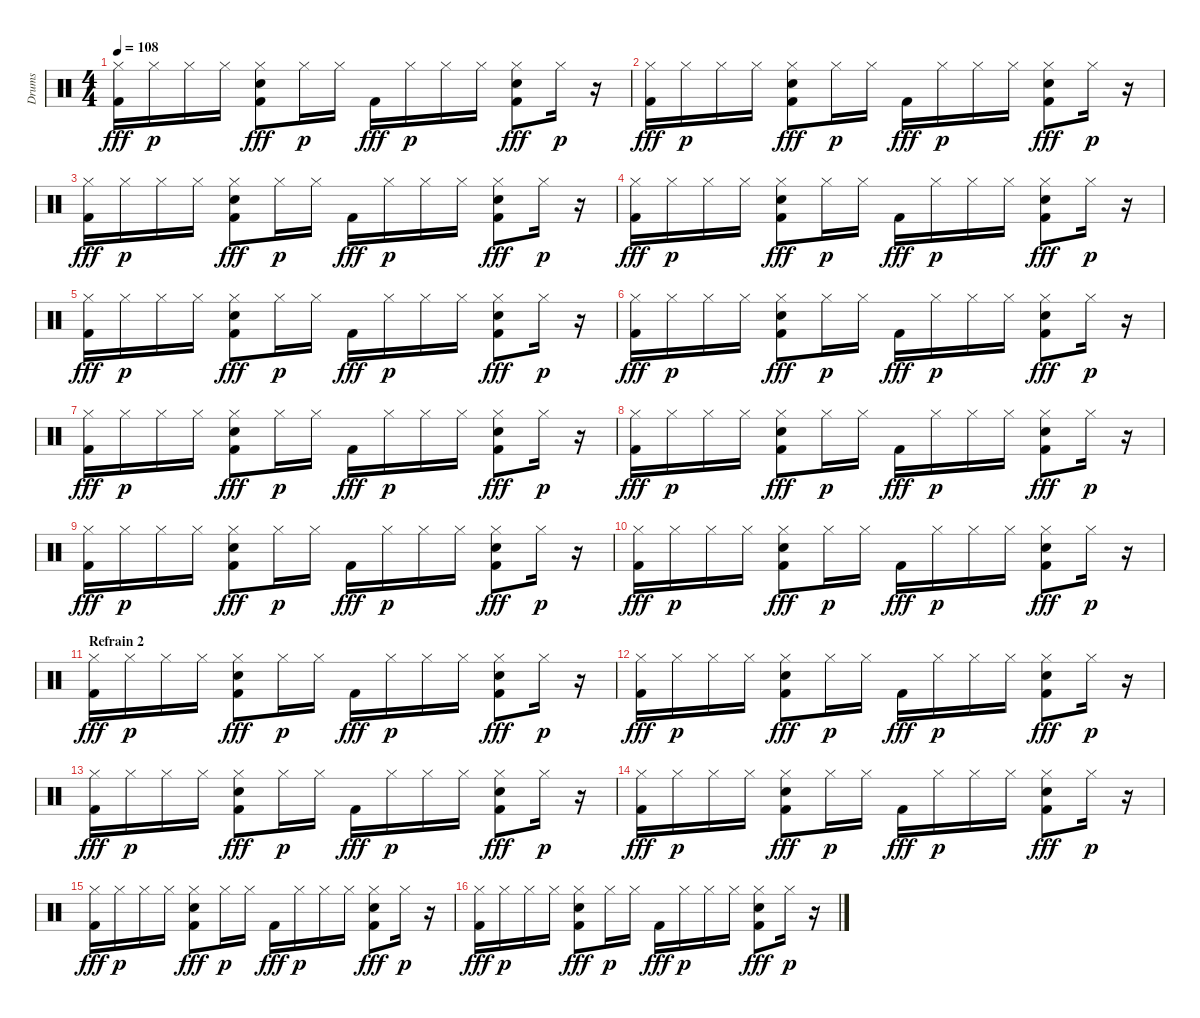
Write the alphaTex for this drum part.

\track ("Drums" "Drums") {instrument percussion}
\staff {score}
\articulation defaults
\ts (4 4)
\tempo 108
\clef neutral
\ks c
("Hi-Hat (closed)" "Kick (hit) 2").16{dy fff} "Hi-Hat (closed)".16{dy p} "Hi-Hat (closed)".16 "Hi-Hat (closed)".16 ("Hi-Hat (closed)" "Hand Clap (hit)" "Kick (hit) 2").8{dy fff} "Hi-Hat (closed)".16{dy p} "Hi-Hat (closed)".16 "Kick (hit) 2".16{dy fff} "Hi-Hat (closed)".16{dy p} "Hi-Hat (closed)".16 "Hi-Hat (closed)".16 ("Hi-Hat (closed)" "Hand Clap (hit)" "Kick (hit) 2").8{dy fff} "Hi-Hat (closed)".16{dy p} r.16 |
("Hi-Hat (closed)" "Kick (hit) 2").16{dy fff} "Hi-Hat (closed)".16{dy p} "Hi-Hat (closed)".16 "Hi-Hat (closed)".16 ("Hi-Hat (closed)" "Hand Clap (hit)" "Kick (hit) 2").8{dy fff} "Hi-Hat (closed)".16{dy p} "Hi-Hat (closed)".16 "Kick (hit) 2".16{dy fff} "Hi-Hat (closed)".16{dy p} "Hi-Hat (closed)".16 "Hi-Hat (closed)".16 ("Hi-Hat (closed)" "Hand Clap (hit)" "Kick (hit) 2").8{dy fff} "Hi-Hat (closed)".16{dy p} r.16 |
("Hi-Hat (closed)" "Kick (hit) 2").16{dy fff} "Hi-Hat (closed)".16{dy p} "Hi-Hat (closed)".16 "Hi-Hat (closed)".16 ("Hi-Hat (closed)" "Hand Clap (hit)" "Kick (hit) 2").8{dy fff} "Hi-Hat (closed)".16{dy p} "Hi-Hat (closed)".16 "Kick (hit) 2".16{dy fff} "Hi-Hat (closed)".16{dy p} "Hi-Hat (closed)".16 "Hi-Hat (closed)".16 ("Hi-Hat (closed)" "Hand Clap (hit)" "Kick (hit) 2").8{dy fff} "Hi-Hat (closed)".16{dy p} r.16 |
("Hi-Hat (closed)" "Kick (hit) 2").16{dy fff} "Hi-Hat (closed)".16{dy p} "Hi-Hat (closed)".16 "Hi-Hat (closed)".16 ("Hi-Hat (closed)" "Hand Clap (hit)" "Kick (hit) 2").8{dy fff} "Hi-Hat (closed)".16{dy p} "Hi-Hat (closed)".16 "Kick (hit) 2".16{dy fff} "Hi-Hat (closed)".16{dy p} "Hi-Hat (closed)".16 "Hi-Hat (closed)".16 ("Hi-Hat (closed)" "Hand Clap (hit)" "Kick (hit) 2").8{dy fff} "Hi-Hat (closed)".16{dy p} r.16 |
("Hi-Hat (closed)" "Kick (hit) 2").16{dy fff} "Hi-Hat (closed)".16{dy p} "Hi-Hat (closed)".16 "Hi-Hat (closed)".16 ("Hi-Hat (closed)" "Hand Clap (hit)" "Kick (hit) 2").8{dy fff} "Hi-Hat (closed)".16{dy p} "Hi-Hat (closed)".16 "Kick (hit) 2".16{dy fff} "Hi-Hat (closed)".16{dy p} "Hi-Hat (closed)".16 "Hi-Hat (closed)".16 ("Hi-Hat (closed)" "Hand Clap (hit)" "Kick (hit) 2").8{dy fff} "Hi-Hat (closed)".16{dy p} r.16 |
("Hi-Hat (closed)" "Kick (hit) 2").16{dy fff} "Hi-Hat (closed)".16{dy p} "Hi-Hat (closed)".16 "Hi-Hat (closed)".16 ("Hi-Hat (closed)" "Hand Clap (hit)" "Kick (hit) 2").8{dy fff} "Hi-Hat (closed)".16{dy p} "Hi-Hat (closed)".16 "Kick (hit) 2".16{dy fff} "Hi-Hat (closed)".16{dy p} "Hi-Hat (closed)".16 "Hi-Hat (closed)".16 ("Hi-Hat (closed)" "Hand Clap (hit)" "Kick (hit) 2").8{dy fff} "Hi-Hat (closed)".16{dy p} r.16 |
("Hi-Hat (closed)" "Kick (hit) 2").16{dy fff} "Hi-Hat (closed)".16{dy p} "Hi-Hat (closed)".16 "Hi-Hat (closed)".16 ("Hi-Hat (closed)" "Hand Clap (hit)" "Kick (hit) 2").8{dy fff} "Hi-Hat (closed)".16{dy p} "Hi-Hat (closed)".16 "Kick (hit) 2".16{dy fff} "Hi-Hat (closed)".16{dy p} "Hi-Hat (closed)".16 "Hi-Hat (closed)".16 ("Hi-Hat (closed)" "Hand Clap (hit)" "Kick (hit) 2").8{dy fff} "Hi-Hat (closed)".16{dy p} r.16 |
("Hi-Hat (closed)" "Kick (hit) 2").16{dy fff} "Hi-Hat (closed)".16{dy p} "Hi-Hat (closed)".16 "Hi-Hat (closed)".16 ("Hi-Hat (closed)" "Hand Clap (hit)" "Kick (hit) 2").8{dy fff} "Hi-Hat (closed)".16{dy p} "Hi-Hat (closed)".16 "Kick (hit) 2".16{dy fff} "Hi-Hat (closed)".16{dy p} "Hi-Hat (closed)".16 "Hi-Hat (closed)".16 ("Hi-Hat (closed)" "Hand Clap (hit)" "Kick (hit) 2").8{dy fff} "Hi-Hat (closed)".16{dy p} r.16 |
("Hi-Hat (closed)" "Kick (hit) 2").16{dy fff} "Hi-Hat (closed)".16{dy p} "Hi-Hat (closed)".16 "Hi-Hat (closed)".16 ("Hi-Hat (closed)" "Hand Clap (hit)" "Kick (hit) 2").8{dy fff} "Hi-Hat (closed)".16{dy p} "Hi-Hat (closed)".16 "Kick (hit) 2".16{dy fff} "Hi-Hat (closed)".16{dy p} "Hi-Hat (closed)".16 "Hi-Hat (closed)".16 ("Hi-Hat (closed)" "Hand Clap (hit)" "Kick (hit) 2").8{dy fff} "Hi-Hat (closed)".16{dy p} r.16 |
("Hi-Hat (closed)" "Kick (hit) 2").16{dy fff} "Hi-Hat (closed)".16{dy p} "Hi-Hat (closed)".16 "Hi-Hat (closed)".16 ("Hi-Hat (closed)" "Hand Clap (hit)" "Kick (hit) 2").8{dy fff} "Hi-Hat (closed)".16{dy p} "Hi-Hat (closed)".16 "Kick (hit) 2".16{dy fff} "Hi-Hat (closed)".16{dy p} "Hi-Hat (closed)".16 "Hi-Hat (closed)".16 ("Hi-Hat (closed)" "Hand Clap (hit)" "Kick (hit) 2").8{dy fff} "Hi-Hat (closed)".16{dy p} r.16 |
\section ("" "Refrain 2")
("Hi-Hat (closed)" "Kick (hit) 2").16{dy fff} "Hi-Hat (closed)".16{dy p} "Hi-Hat (closed)".16 "Hi-Hat (closed)".16 ("Hi-Hat (closed)" "Hand Clap (hit)" "Kick (hit) 2").8{dy fff} "Hi-Hat (closed)".16{dy p} "Hi-Hat (closed)".16 "Kick (hit) 2".16{dy fff} "Hi-Hat (closed)".16{dy p} "Hi-Hat (closed)".16 "Hi-Hat (closed)".16 ("Hi-Hat (closed)" "Hand Clap (hit)" "Kick (hit) 2").8{dy fff} "Hi-Hat (closed)".16{dy p} r.16 |
("Hi-Hat (closed)" "Kick (hit) 2").16{dy fff} "Hi-Hat (closed)".16{dy p} "Hi-Hat (closed)".16 "Hi-Hat (closed)".16 ("Hi-Hat (closed)" "Hand Clap (hit)" "Kick (hit) 2").8{dy fff} "Hi-Hat (closed)".16{dy p} "Hi-Hat (closed)".16 "Kick (hit) 2".16{dy fff} "Hi-Hat (closed)".16{dy p} "Hi-Hat (closed)".16 "Hi-Hat (closed)".16 ("Hi-Hat (closed)" "Hand Clap (hit)" "Kick (hit) 2").8{dy fff} "Hi-Hat (closed)".16{dy p} r.16 |
("Hi-Hat (closed)" "Kick (hit) 2").16{dy fff} "Hi-Hat (closed)".16{dy p} "Hi-Hat (closed)".16 "Hi-Hat (closed)".16 ("Hi-Hat (closed)" "Hand Clap (hit)" "Kick (hit) 2").8{dy fff} "Hi-Hat (closed)".16{dy p} "Hi-Hat (closed)".16 "Kick (hit) 2".16{dy fff} "Hi-Hat (closed)".16{dy p} "Hi-Hat (closed)".16 "Hi-Hat (closed)".16 ("Hi-Hat (closed)" "Hand Clap (hit)" "Kick (hit) 2").8{dy fff} "Hi-Hat (closed)".16{dy p} r.16 |
("Hi-Hat (closed)" "Kick (hit) 2").16{dy fff} "Hi-Hat (closed)".16{dy p} "Hi-Hat (closed)".16 "Hi-Hat (closed)".16 ("Hi-Hat (closed)" "Hand Clap (hit)" "Kick (hit) 2").8{dy fff} "Hi-Hat (closed)".16{dy p} "Hi-Hat (closed)".16 "Kick (hit) 2".16{dy fff} "Hi-Hat (closed)".16{dy p} "Hi-Hat (closed)".16 "Hi-Hat (closed)".16 ("Hi-Hat (closed)" "Hand Clap (hit)" "Kick (hit) 2").8{dy fff} "Hi-Hat (closed)".16{dy p} r.16 |
("Hi-Hat (closed)" "Kick (hit) 2").16{dy fff} "Hi-Hat (closed)".16{dy p} "Hi-Hat (closed)".16 "Hi-Hat (closed)".16 ("Hi-Hat (closed)" "Hand Clap (hit)" "Kick (hit) 2").8{dy fff} "Hi-Hat (closed)".16{dy p} "Hi-Hat (closed)".16 "Kick (hit) 2".16{dy fff} "Hi-Hat (closed)".16{dy p} "Hi-Hat (closed)".16 "Hi-Hat (closed)".16 ("Hi-Hat (closed)" "Hand Clap (hit)" "Kick (hit) 2").8{dy fff} "Hi-Hat (closed)".16{dy p} r.16 |
("Hi-Hat (closed)" "Kick (hit) 2").16{dy fff} "Hi-Hat (closed)".16{dy p} "Hi-Hat (closed)".16 "Hi-Hat (closed)".16 ("Hi-Hat (closed)" "Hand Clap (hit)" "Kick (hit) 2").8{dy fff} "Hi-Hat (closed)".16{dy p} "Hi-Hat (closed)".16 "Kick (hit) 2".16{dy fff} "Hi-Hat (closed)".16{dy p} "Hi-Hat (closed)".16 "Hi-Hat (closed)".16 ("Hi-Hat (closed)" "Hand Clap (hit)" "Kick (hit) 2").8{dy fff} "Hi-Hat (closed)".16{dy p} r.16
